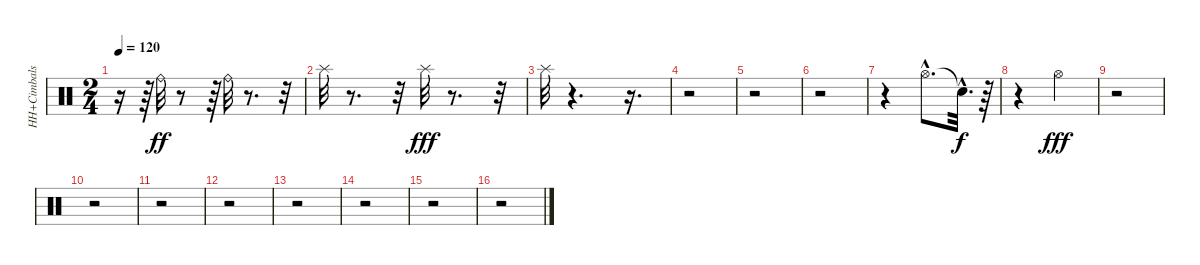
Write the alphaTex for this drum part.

\track ("HH+Cimbals" "HH+Cimbals") {instrument percussion}
\staff {score}
\articulation defaults
\ts (2 4)
\tempo 120
\clef neutral
\ks c
r.16{dy ff} r.64 "Ride (bell)".32 r.8 r.64 "Ride (bell)".32 r.8{d} r.32 |
"Splash (hit)".32 r.8{d} r.32 "Splash (hit)".32{dy fff} r.8{d} r.32 |
"Splash (hit)".32 r.4{d} r.16{d} |
r.2 |
r.2 |
r.2 |
r.4 "Hi-Hat (open)"{hac}.8{d} "Snare (hit)"{hac t}.32{d dy f} r.64 |
r.4 "Hi-Hat (open)".4{dy fff} |
r.2 |
r.2 |
r.2 |
r.2 |
r.2 |
r.2 |
r.2 |
r.2
